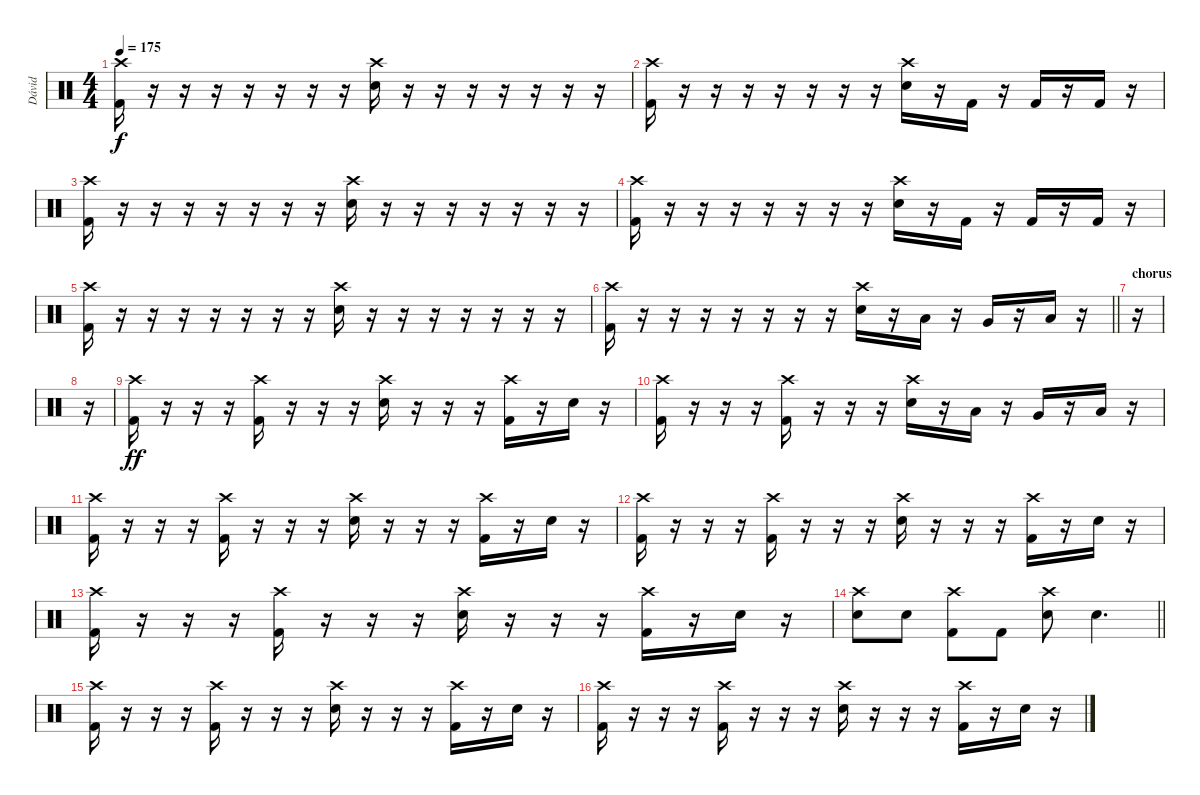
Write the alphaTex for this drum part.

\track ("Dávid" "Dávid") {instrument percussion}
\staff {score}
\articulation defaults
\ts (4 4)
\tempo 175
\clef neutral
\ks c
("Crash high (hit)" "Kick (hit) 2").16{dy f} r.16 r.16 r.16 r.16 r.16 r.16 r.16 ("Crash high (hit)" "Electric Snare (hit)").16 r.16 r.16 r.16 r.16 r.16 r.16 r.16 |
("Crash high (hit)" "Kick (hit) 2").16 r.16 r.16 r.16 r.16 r.16 r.16 r.16 ("Crash high (hit)" "Electric Snare (hit)").16 r.16 "Kick (hit) 2".16 r.16 "Kick (hit) 2".16 r.16 "Kick (hit) 2".16 r.16 |
("Crash high (hit)" "Kick (hit) 2").16 r.16 r.16 r.16 r.16 r.16 r.16 r.16 ("Crash high (hit)" "Electric Snare (hit)").16 r.16 r.16 r.16 r.16 r.16 r.16 r.16 |
("Crash high (hit)" "Kick (hit) 2").16 r.16 r.16 r.16 r.16 r.16 r.16 r.16 ("Crash high (hit)" "Electric Snare (hit)").16 r.16 "Kick (hit) 2".16 r.16 "Kick (hit) 2".16 r.16 "Kick (hit) 2".16 r.16 |
("Crash high (hit)" "Kick (hit) 2").16 r.16 r.16 r.16 r.16 r.16 r.16 r.16 ("Crash high (hit)" "Electric Snare (hit)").16 r.16 r.16 r.16 r.16 r.16 r.16 r.16 |
\barLineRight lightlight
("Crash high (hit)" "Kick (hit) 2").16 r.16 r.16 r.16 r.16 r.16 r.16 r.16 ("Crash high (hit)" "Electric Snare (hit)").16 r.16 "Low Tom (hit)".16 r.16 "Very Low Tom (hit)".16 r.16 "Low Floor Tom (hit)".16 r.16 |
\section ("" "chorus")
r.16 |
r.16 |
("Crash high (hit)" "Kick (hit) 2").16{dy ff} r.16 r.16 r.16 ("Crash high (hit)" "Kick (hit) 2").16 r.16 r.16 r.16 ("Crash high (hit)" "Electric Snare (hit)").16 r.16 r.16 r.16 ("Crash high (hit)" "Kick (hit) 2").16 r.16 "Electric Snare (hit)".16 r.16 |
("Crash high (hit)" "Kick (hit) 2").16 r.16 r.16 r.16 ("Crash high (hit)" "Kick (hit) 2").16 r.16 r.16 r.16 ("Crash high (hit)" "Electric Snare (hit)").16 r.16 "Low Tom (hit)".16 r.16 "Very Low Tom (hit)".16 r.16 "Low Floor Tom (hit)".16 r.16 |
("Crash high (hit)" "Kick (hit) 2").16 r.16 r.16 r.16 ("Crash high (hit)" "Kick (hit) 2").16 r.16 r.16 r.16 ("Crash high (hit)" "Electric Snare (hit)").16 r.16 r.16 r.16 ("Crash high (hit)" "Kick (hit) 2").16 r.16 "Electric Snare (hit)".16 r.16 |
("Crash high (hit)" "Kick (hit) 2").16 r.16 r.16 r.16 ("Crash high (hit)" "Kick (hit) 2").16 r.16 r.16 r.16 ("Crash high (hit)" "Electric Snare (hit)").16 r.16 r.16 r.16 ("Crash high (hit)" "Kick (hit) 2").16 r.16 "Electric Snare (hit)".16 r.16 |
("Crash high (hit)" "Kick (hit) 2").16 r.16 r.16 r.16 ("Crash high (hit)" "Kick (hit) 2").16 r.16 r.16 r.16 ("Crash high (hit)" "Electric Snare (hit)").16 r.16 r.16 r.16 ("Crash high (hit)" "Kick (hit) 2").16 r.16 "Electric Snare (hit)".16 r.16 |
\barLineRight lightlight
("Crash high (hit)" "Electric Snare (hit)").8 "Electric Snare (hit)".8 ("Crash high (hit)" "Kick (hit) 2").8 "Kick (hit) 2".8 ("Crash high (hit)" "Electric Snare (hit)").8 "Electric Snare (hit)".4{d} |
("Crash high (hit)" "Kick (hit) 2").16 r.16 r.16 r.16 ("Crash high (hit)" "Kick (hit) 2").16 r.16 r.16 r.16 ("Crash high (hit)" "Electric Snare (hit)").16 r.16 r.16 r.16 ("Crash high (hit)" "Kick (hit) 2").16 r.16 "Electric Snare (hit)".16 r.16 |
("Crash high (hit)" "Kick (hit) 2").16 r.16 r.16 r.16 ("Crash high (hit)" "Kick (hit) 2").16 r.16 r.16 r.16 ("Crash high (hit)" "Electric Snare (hit)").16 r.16 r.16 r.16 ("Crash high (hit)" "Kick (hit) 2").16 r.16 "Electric Snare (hit)".16 r.16
